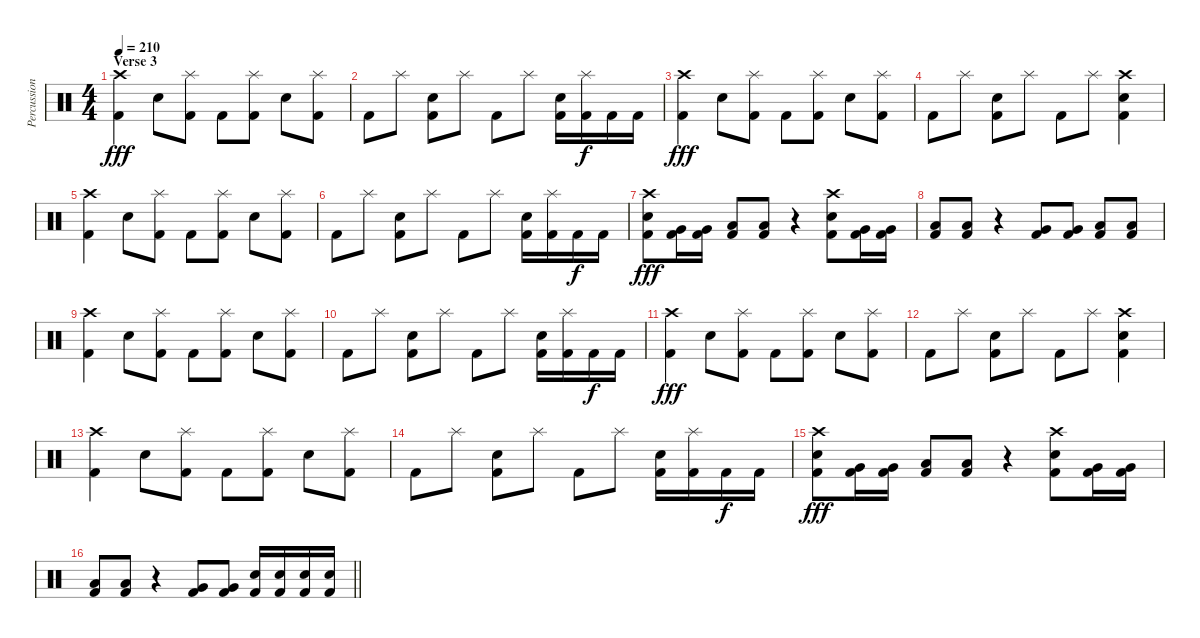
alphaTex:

\track ("Percussion" "Percussion") {instrument percussion}
\staff {score}
\articulation defaults
\ts (4 4)
\section ("" "Verse 3")
\tempo 210
\clef neutral
\ks c
("Crash high (hit)" "Kick (hit) 2").4{dy fff} "Electric Snare (hit)".8 ("Splash (hit)" "Kick (hit) 2").8 "Kick (hit) 2".8 ("Splash (hit)" "Kick (hit) 2").8 "Electric Snare (hit)".8 ("Splash (hit)" "Kick (hit) 2").8 |
"Kick (hit) 2".8 "Splash (hit)".8 ("Electric Snare (hit)" "Kick (hit) 2").8 "Splash (hit)".8 "Kick (hit) 2".8 "Splash (hit)".8 ("Electric Snare (hit)" "Kick (hit) 2").16 ("Splash (hit)" "Kick (hit) 2").16{dy f} "Kick (hit) 2".16 "Kick (hit) 2".16 |
("Crash high (hit)" "Kick (hit) 2").4{dy fff} "Electric Snare (hit)".8 ("Splash (hit)" "Kick (hit) 2").8 "Kick (hit) 2".8 ("Splash (hit)" "Kick (hit) 2").8 "Electric Snare (hit)".8 ("Splash (hit)" "Kick (hit) 2").8 |
"Kick (hit) 2".8 "Splash (hit)".8 ("Electric Snare (hit)" "Kick (hit) 2").8 "Splash (hit)".8 "Kick (hit) 2".8 "Splash (hit)".8 ("Crash high (hit)" "Electric Snare (hit)" "Kick (hit) 2").4 |
("Crash high (hit)" "Kick (hit) 2").4 "Electric Snare (hit)".8 ("Splash (hit)" "Kick (hit) 2").8 "Kick (hit) 2".8 ("Splash (hit)" "Kick (hit) 2").8 "Electric Snare (hit)".8 ("Splash (hit)" "Kick (hit) 2").8 |
"Kick (hit) 2".8 "Splash (hit)".8 ("Electric Snare (hit)" "Kick (hit) 2").8 "Splash (hit)".8 "Kick (hit) 2".8 "Splash (hit)".8 ("Electric Snare (hit)" "Kick (hit) 2").16 ("Splash (hit)" "Kick (hit) 2").16 "Kick (hit) 2".16{dy f} "Kick (hit) 2".16 |
("Crash high (hit)" "Electric Snare (hit)" "Kick (hit) 2").8{dy fff} ("Very Low Tom (hit)" "Kick (hit) 2").16 ("Very Low Tom (hit)" "Kick (hit) 2").16 ("Low Floor Tom (hit)" "Kick (hit) 2").8 ("Low Floor Tom (hit)" "Kick (hit) 2").8 r.4 ("Crash high (hit)" "Electric Snare (hit)" "Kick (hit) 2").8 ("Very Low Tom (hit)" "Kick (hit) 2").16 ("Very Low Tom (hit)" "Kick (hit) 2").16 |
("Low Floor Tom (hit)" "Kick (hit) 2").8 ("Low Floor Tom (hit)" "Kick (hit) 2").8 r.4 ("Very Low Tom (hit)" "Kick (hit) 2").8 ("Very Low Tom (hit)" "Kick (hit) 2").8 ("Low Floor Tom (hit)" "Kick (hit) 2").8 ("Low Floor Tom (hit)" "Kick (hit) 2").8 |
("Crash high (hit)" "Kick (hit) 2").4 "Electric Snare (hit)".8 ("Splash (hit)" "Kick (hit) 2").8 "Kick (hit) 2".8 ("Splash (hit)" "Kick (hit) 2").8 "Electric Snare (hit)".8 ("Splash (hit)" "Kick (hit) 2").8 |
"Kick (hit) 2".8 "Splash (hit)".8 ("Electric Snare (hit)" "Kick (hit) 2").8 "Splash (hit)".8 "Kick (hit) 2".8 "Splash (hit)".8 ("Electric Snare (hit)" "Kick (hit) 2").16 ("Splash (hit)" "Kick (hit) 2").16 "Kick (hit) 2".16{dy f} "Kick (hit) 2".16 |
("Crash high (hit)" "Kick (hit) 2").4{dy fff} "Electric Snare (hit)".8 ("Splash (hit)" "Kick (hit) 2").8 "Kick (hit) 2".8 ("Splash (hit)" "Kick (hit) 2").8 "Electric Snare (hit)".8 ("Splash (hit)" "Kick (hit) 2").8 |
"Kick (hit) 2".8 "Splash (hit)".8 ("Electric Snare (hit)" "Kick (hit) 2").8 "Splash (hit)".8 "Kick (hit) 2".8 "Splash (hit)".8 ("Crash high (hit)" "Electric Snare (hit)" "Kick (hit) 2").4 |
("Crash high (hit)" "Kick (hit) 2").4 "Electric Snare (hit)".8 ("Splash (hit)" "Kick (hit) 2").8 "Kick (hit) 2".8 ("Splash (hit)" "Kick (hit) 2").8 "Electric Snare (hit)".8 ("Splash (hit)" "Kick (hit) 2").8 |
"Kick (hit) 2".8 "Splash (hit)".8 ("Electric Snare (hit)" "Kick (hit) 2").8 "Splash (hit)".8 "Kick (hit) 2".8 "Splash (hit)".8 ("Electric Snare (hit)" "Kick (hit) 2").16 ("Splash (hit)" "Kick (hit) 2").16 "Kick (hit) 2".16{dy f} "Kick (hit) 2".16 |
("Crash high (hit)" "Electric Snare (hit)" "Kick (hit) 2").8{dy fff} ("Very Low Tom (hit)" "Kick (hit) 2").16 ("Very Low Tom (hit)" "Kick (hit) 2").16 ("Low Floor Tom (hit)" "Kick (hit) 2").8 ("Low Floor Tom (hit)" "Kick (hit) 2").8 r.4 ("Crash high (hit)" "Electric Snare (hit)" "Kick (hit) 2").8 ("Very Low Tom (hit)" "Kick (hit) 2").16 ("Very Low Tom (hit)" "Kick (hit) 2").16 |
\barLineRight lightlight
("Low Floor Tom (hit)" "Kick (hit) 2").8 ("Low Floor Tom (hit)" "Kick (hit) 2").8 r.4 ("Very Low Tom (hit)" "Kick (hit) 2").8 ("Very Low Tom (hit)" "Kick (hit) 2").8 ("Electric Snare (hit)" "Kick (hit) 2").16 ("Electric Snare (hit)" "Kick (hit) 2").16 ("Electric Snare (hit)" "Kick (hit) 2").16 ("Electric Snare (hit)" "Kick (hit) 2").16
